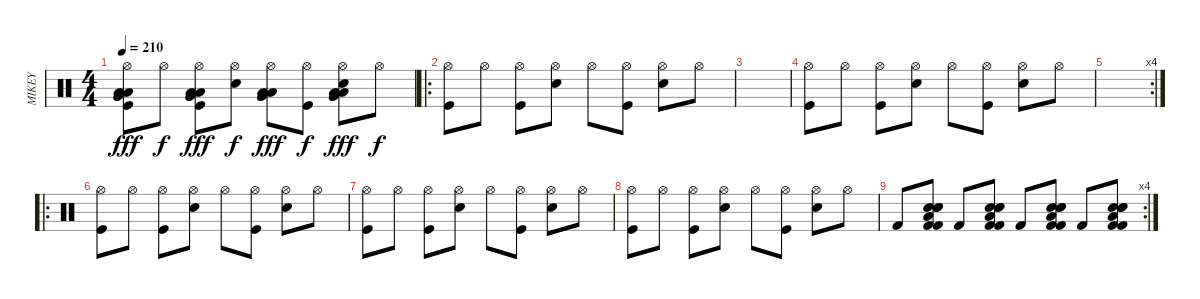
\track ("MIKEY" "MIKEY") {instrument percussion}
\staff {score}
\articulation defaults
\ts (4 4)
\tempo 210
\clef neutral
\ks c
("Low Tom (hit)" "Very Low Tom (hit)" "Low Tom (hit)" "Very Low Tom (hit)" "Hi-Hat (open)" "Kick (hit)").8{dy fff} "Hi-Hat (open)".8{dy f} ("Low Tom (hit)" "Very Low Tom (hit)" "Low Tom (hit)" "Very Low Tom (hit)" "Hi-Hat (open)" "Kick (hit)").8{dy fff} ("Hi-Hat (open)" "Snare (hit) 2").8{dy f} ("Low Tom (hit)" "Very Low Tom (hit)" "Low Tom (hit)" "Very Low Tom (hit)" "Hi-Hat (open)").8{dy fff} ("Hi-Hat (open)" "Kick (hit)").8{dy f} ("Low Tom (hit)" "Very Low Tom (hit)" "Low Tom (hit)" "Very Low Tom (hit)" "Hi-Hat (open)" "Snare (hit) 2").8{dy fff} "Hi-Hat (open)".8{dy f} |
\ro
("Hi-Hat (open)" "Kick (hit)").8 "Hi-Hat (open)".8 ("Hi-Hat (open)" "Kick (hit)").8 ("Hi-Hat (open)" "Snare (hit) 2").8 "Hi-Hat (open)".8 ("Hi-Hat (open)" "Kick (hit)").8 ("Hi-Hat (open)" "Snare (hit) 2").8 "Hi-Hat (open)".8 |
|
("Hi-Hat (open)" "Kick (hit)").8 "Hi-Hat (open)".8 ("Hi-Hat (open)" "Kick (hit)").8 ("Hi-Hat (open)" "Snare (hit) 2").8 "Hi-Hat (open)".8 ("Hi-Hat (open)" "Kick (hit)").8 ("Hi-Hat (open)" "Snare (hit) 2").8 "Hi-Hat (open)".8 |
\rc 4
|
\ro
("Hi-Hat (open)" "Kick (hit)").8 "Hi-Hat (open)".8 ("Hi-Hat (open)" "Kick (hit)").8 ("Hi-Hat (open)" "Snare (hit) 2").8 "Hi-Hat (open)".8 ("Hi-Hat (open)" "Kick (hit)").8 ("Hi-Hat (open)" "Snare (hit) 2").8 "Hi-Hat (open)".8 |
("Hi-Hat (open)" "Kick (hit)").8 "Hi-Hat (open)".8 ("Hi-Hat (open)" "Kick (hit)").8 ("Hi-Hat (open)" "Snare (hit) 2").8 "Hi-Hat (open)".8 ("Hi-Hat (open)" "Kick (hit)").8 ("Hi-Hat (open)" "Snare (hit) 2").8 "Hi-Hat (open)".8 |
("Hi-Hat (open)" "Kick (hit)").8 "Hi-Hat (open)".8 ("Hi-Hat (open)" "Kick (hit)").8 ("Hi-Hat (open)" "Snare (hit) 2").8 "Hi-Hat (open)".8 ("Hi-Hat (open)" "Kick (hit)").8 ("Hi-Hat (open)" "Snare (hit) 2").8 "Hi-Hat (open)".8 |
\rc 4 "Kick (hit) 2".8
("Low Floor Tom (hit)" "Snare (hit) 2" "Kick (hit) 2" "Electric Snare (hit)" "Kick (hit) 2" "Electric Snare (hit)").8 "Kick (hit) 2".8 ("Low Floor Tom (hit)" "Snare (hit) 2" "Kick (hit) 2" "Electric Snare (hit)" "Kick (hit) 2" "Electric Snare (hit)").8 "Kick (hit) 2".8 ("Low Floor Tom (hit)" "Snare (hit) 2" "Kick (hit) 2" "Electric Snare (hit)" "Kick (hit) 2" "Electric Snare (hit)").8 "Kick (hit) 2".8 ("Low Floor Tom (hit)" "Snare (hit) 2" "Kick (hit) 2" "Electric Snare (hit)" "Kick (hit) 2" "Electric Snare (hit)").8
